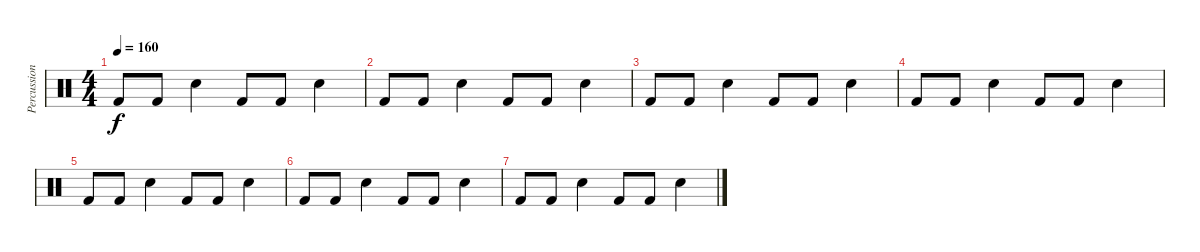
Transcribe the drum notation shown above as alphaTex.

\track ("Percussion" "Percussion") {instrument percussion}
\staff {score}
\articulation defaults
\ts (4 4)
\tempo 160
\clef neutral
\ks c "Kick (hit) 2".8{dy f} "Kick (hit) 2".8 "Snare (hit) 2".4 "Kick (hit) 2".8 "Kick (hit) 2".8 "Snare (hit) 2".4
|
"Kick (hit) 2".8 "Kick (hit) 2".8 "Snare (hit) 2".4 "Kick (hit) 2".8 "Kick (hit) 2".8 "Snare (hit) 2".4 |
"Kick (hit) 2".8 "Kick (hit) 2".8 "Snare (hit) 2".4 "Kick (hit) 2".8 "Kick (hit) 2".8 "Snare (hit) 2".4 |
"Kick (hit) 2".8 "Kick (hit) 2".8 "Snare (hit) 2".4 "Kick (hit) 2".8 "Kick (hit) 2".8 "Snare (hit) 2".4 |
"Kick (hit) 2".8 "Kick (hit) 2".8 "Snare (hit) 2".4 "Kick (hit) 2".8 "Kick (hit) 2".8 "Snare (hit) 2".4 |
"Kick (hit) 2".8 "Kick (hit) 2".8 "Snare (hit) 2".4 "Kick (hit) 2".8 "Kick (hit) 2".8 "Snare (hit) 2".4 |
"Kick (hit) 2".8 "Kick (hit) 2".8 "Snare (hit) 2".4 "Kick (hit) 2".8 "Kick (hit) 2".8 "Snare (hit) 2".4
